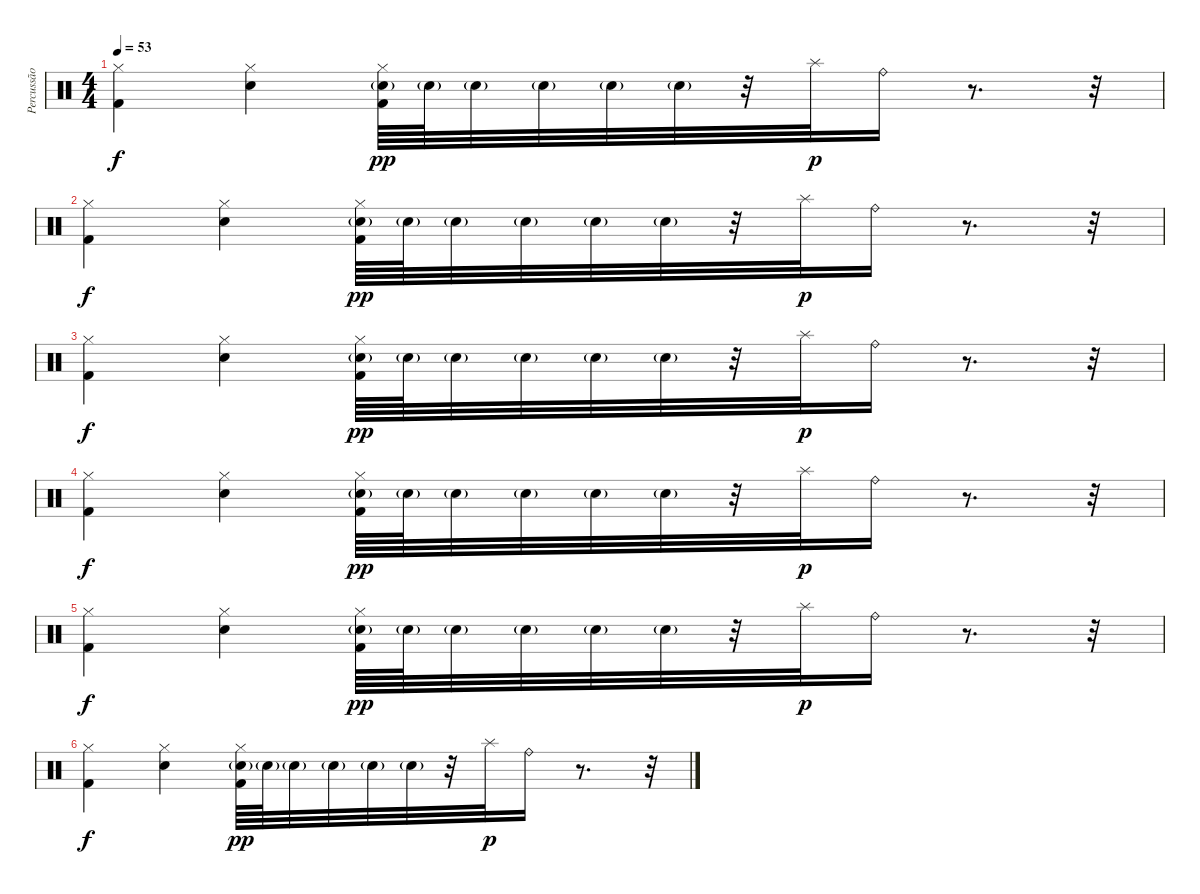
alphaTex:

\track ("Percussão" "Percussão") {instrument percussion}
\staff {score}
\articulation defaults
\ts (4 4)
\tempo 53
\clef neutral
\ks c
("Hi-Hat (closed)" "Kick (hit) 2").4{dy f} ("Hi-Hat (closed)" "Electric Snare (hit)").4 ("Hi-Hat (closed)" "Electric Snare (hit)"{g} "Kick (hit) 2").64{dy pp} "Electric Snare (hit)"{g}.64 "Electric Snare (hit)"{g}.32 "Electric Snare (hit)"{g}.32 "Electric Snare (hit)"{g}.32 "Electric Snare (hit)"{g}.32 r.32 "Splash (hit)".32{dy p} "Ride (bell)".16 r.8{d} r.32 |
("Hi-Hat (closed)" "Kick (hit) 2").4{dy f} ("Hi-Hat (closed)" "Electric Snare (hit)").4 ("Hi-Hat (closed)" "Electric Snare (hit)"{g} "Kick (hit) 2").64{dy pp} "Electric Snare (hit)"{g}.64 "Electric Snare (hit)"{g}.32 "Electric Snare (hit)"{g}.32 "Electric Snare (hit)"{g}.32 "Electric Snare (hit)"{g}.32 r.32 "Splash (hit)".32{dy p} "Ride (bell)".16 r.8{d} r.32 |
("Hi-Hat (closed)" "Kick (hit) 2").4{dy f} ("Hi-Hat (closed)" "Electric Snare (hit)").4 ("Hi-Hat (closed)" "Electric Snare (hit)"{g} "Kick (hit) 2").64{dy pp} "Electric Snare (hit)"{g}.64 "Electric Snare (hit)"{g}.32 "Electric Snare (hit)"{g}.32 "Electric Snare (hit)"{g}.32 "Electric Snare (hit)"{g}.32 r.32 "Splash (hit)".32{dy p} "Ride (bell)".16 r.8{d} r.32 |
("Hi-Hat (closed)" "Kick (hit) 2").4{dy f} ("Hi-Hat (closed)" "Electric Snare (hit)").4 ("Hi-Hat (closed)" "Electric Snare (hit)"{g} "Kick (hit) 2").64{dy pp} "Electric Snare (hit)"{g}.64 "Electric Snare (hit)"{g}.32 "Electric Snare (hit)"{g}.32 "Electric Snare (hit)"{g}.32 "Electric Snare (hit)"{g}.32 r.32 "Splash (hit)".32{dy p} "Ride (bell)".16 r.8{d} r.32 |
("Hi-Hat (closed)" "Kick (hit) 2").4{dy f} ("Hi-Hat (closed)" "Electric Snare (hit)").4 ("Hi-Hat (closed)" "Electric Snare (hit)"{g} "Kick (hit) 2").64{dy pp} "Electric Snare (hit)"{g}.64 "Electric Snare (hit)"{g}.32 "Electric Snare (hit)"{g}.32 "Electric Snare (hit)"{g}.32 "Electric Snare (hit)"{g}.32 r.32 "Splash (hit)".32{dy p} "Ride (bell)".16 r.8{d} r.32 |
("Hi-Hat (closed)" "Kick (hit) 2").4{dy f} ("Hi-Hat (closed)" "Electric Snare (hit)").4 ("Hi-Hat (closed)" "Electric Snare (hit)"{g} "Kick (hit) 2").64{dy pp} "Electric Snare (hit)"{g}.64 "Electric Snare (hit)"{g}.32 "Electric Snare (hit)"{g}.32 "Electric Snare (hit)"{g}.32 "Electric Snare (hit)"{g}.32 r.32 "Splash (hit)".32{dy p} "Ride (bell)".16 r.8{d} r.32
